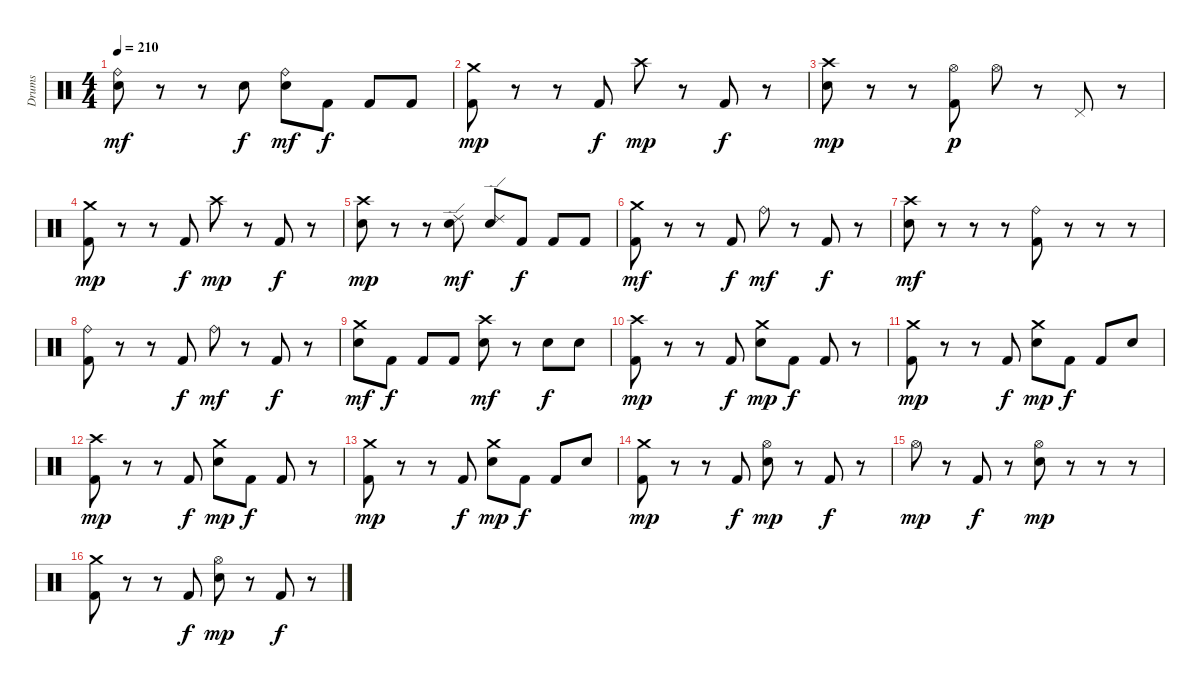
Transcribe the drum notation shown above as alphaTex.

\track ("Drums" "Drums") {instrument percussion}
\staff {score}
\articulation defaults
\ts (4 4)
\tempo 210
\clef neutral
\ks c
("Snare (hit) 2" "Ride (bell)").8{dy mf} r.8 r.8 "Snare (hit) 2".8{dy f} ("Snare (hit) 2" "Ride (bell)").8{dy mf} "Kick (hit) 2".8{dy f} "Kick (hit) 2".8 "Kick (hit) 2".8 |
("Kick (hit) 2" "Crash medium (hit)").8{dy mp} r.8 r.8 "Kick (hit) 2".8{dy f} "Crash high (hit)".8{dy mp} r.8 "Kick (hit) 2".8{dy f} r.8 |
("Snare (hit) 2" "Crash high (hit)").8{dy mp} r.8 r.8 ("Kick (hit) 2" "Hi-Hat (open)").8{dy p} "Hi-Hat (open)".8 r.8 "Pedal Hi-Hat (hit)".8 r.8 |
("Kick (hit) 2" "Crash medium (hit)").8{dy mp} r.8 r.8 "Kick (hit) 2".8{dy f} "Crash high (hit)".8{dy mp} r.8 "Kick (hit) 2".8{dy f} r.8 |
("Snare (hit) 2" "Crash high (hit)").8{dy mp} r.8 r.8 ("Snare (hit) 2" "Ride (edge) 2").8{dy mf} ("Snare (hit) 2" "Ride (edge) 2").8 "Kick (hit) 2".8{dy f} "Kick (hit) 2".8 "Kick (hit) 2".8 |
("Kick (hit) 2" "Crash medium (hit)").8{dy mf} r.8 r.8 "Kick (hit) 2".8{dy f} "Ride (bell)".8{dy mf} r.8 "Kick (hit) 2".8{dy f} r.8 |
("Snare (hit) 2" "Crash high (hit)").8{dy mf} r.8 r.8 r.8 ("Kick (hit) 2" "Ride (bell)").8 r.8 r.8 r.8 |
("Kick (hit) 2" "Ride (bell)").8 r.8 r.8 "Kick (hit) 2".8{dy f} "Ride (bell)".8{dy mf} r.8 "Kick (hit) 2".8{dy f} r.8 |
("Snare (hit) 2" "Crash medium (hit)").8{dy mf} "Kick (hit) 2".8{dy f} "Kick (hit) 2".8 "Kick (hit) 2".8 ("Snare (hit) 2" "Crash high (hit)").8{dy mf} r.8 "Snare (hit) 2".8{dy f} "Snare (hit) 2".8 |
("Kick (hit) 2" "Crash high (hit)").8{dy mp} r.8 r.8 "Kick (hit) 2".8{dy f} ("Snare (hit) 2" "Crash medium (hit)").8{dy mp} "Kick (hit) 2".8{dy f} "Kick (hit) 2".8 r.8 |
("Kick (hit) 2" "Crash medium (hit)").8{dy mp} r.8 r.8 "Kick (hit) 2".8{dy f} ("Snare (hit) 2" "Crash medium (hit)").8{dy mp} "Kick (hit) 2".8{dy f} "Kick (hit) 2".8 "Snare (hit) 2".8 |
("Kick (hit) 2" "Crash high (hit)").8{dy mp} r.8 r.8 "Kick (hit) 2".8{dy f} ("Snare (hit) 2" "Crash medium (hit)").8{dy mp} "Kick (hit) 2".8{dy f} "Kick (hit) 2".8 r.8 |
("Kick (hit) 2" "Crash medium (hit)").8{dy mp} r.8 r.8 "Kick (hit) 2".8{dy f} ("Snare (hit) 2" "Crash medium (hit)").8{dy mp} "Kick (hit) 2".8{dy f} "Kick (hit) 2".8 "Snare (hit) 2".8 |
("Kick (hit) 2" "Crash medium (hit)").8{dy mp} r.8 r.8 "Kick (hit) 2".8{dy f} ("Snare (hit) 2" "Hi-Hat (open)").8{dy mp} r.8 "Kick (hit) 2".8{dy f} r.8 |
"Hi-Hat (open)".8{dy mp} r.8 "Kick (hit) 2".8{dy f} r.8 ("Snare (hit) 2" "Hi-Hat (open)").8{dy mp} r.8 r.8 r.8 |
("Kick (hit) 2" "Crash medium (hit)").8 r.8 r.8 "Kick (hit) 2".8{dy f} ("Snare (hit) 2" "Hi-Hat (open)").8{dy mp} r.8 "Kick (hit) 2".8{dy f} r.8
